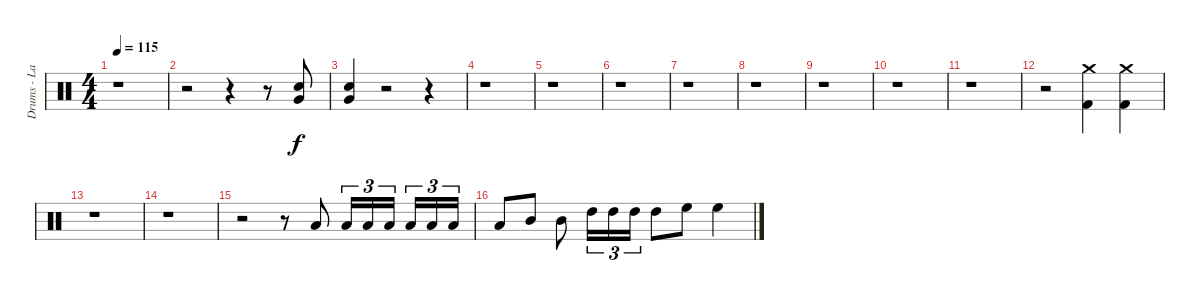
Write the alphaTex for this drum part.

\track ("Drums - Lars" "Drums - La") {instrument percussion}
\staff {score}
\articulation defaults
\ts (4 4)
\tempo 115
\clef neutral
\ks c
r.1{dy f} |
r.2 r.4 r.8 ("Snare (hit) 2" "Very Low Tom (hit)").8 |
("Snare (hit) 2" "Very Low Tom (hit)").4 r.2 r.4 |
r.1 |
r.1 |
r.1 |
r.1 |
r.1 |
r.1 |
r.1 |
r.1 |
r.2 ("Crash medium (hit)" "Kick (hit) 2").4 ("Crash medium (hit)" "Kick (hit) 2").4 |
r.1 |
r.1 |
r.2 r.8 "Low Tom (hit)".8 "Low Tom (hit)".16{tu (3 2)} "Low Tom (hit)".16{tu (3 2)} "Low Tom (hit)".16{tu (3 2)} "Low Tom (hit)".16{tu (3 2)} "Low Tom (hit)".16{tu (3 2)} "Low Tom (hit)".16{tu (3 2)} |
"Low Tom (hit)".8 "Mid Tom (hit)".8 "Mid Tom (hit)".8 "High Tom (hit)".16{tu (3 2)} "High Tom (hit)".16{tu (3 2)} "High Tom (hit)".16{tu (3 2)} "High Tom (hit)".8 "High Floor Tom (hit)".8 "High Floor Tom (hit)".4
